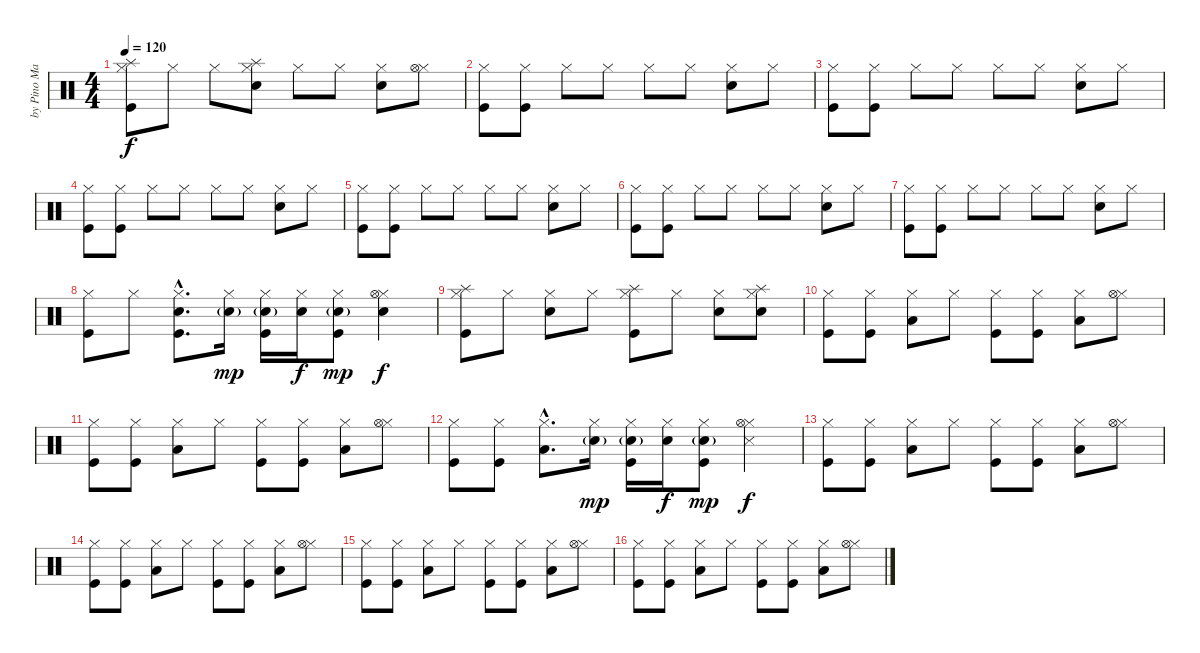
\track ("by Pino Mariconda - e Gianni De Vita" "by Pino Ma") {instrument percussion}
\staff {score}
\articulation defaults
\ts (4 4)
\tempo 120
\clef neutral
\ks c
("Splash (hit)" "Hi-Hat (closed)" "Kick (hit)").8{dy f} "Hi-Hat (closed)".8 "Hi-Hat (closed)".8 ("Splash (hit)" "Hi-Hat (closed)" "Snare (hit) 2").8 "Hi-Hat (closed)".8 "Hi-Hat (closed)".8 ("Hi-Hat (closed)" "Snare (hit) 2").8 ("Hi-Hat (closed)" "Hi-Hat (open)").8 |
("Hi-Hat (closed)" "Kick (hit)").8 ("Hi-Hat (closed)" "Kick (hit)").8 "Hi-Hat (closed)".8 "Hi-Hat (closed)".8 "Hi-Hat (closed)".8 "Hi-Hat (closed)".8 ("Hi-Hat (closed)" "Snare (hit) 2").8 "Hi-Hat (closed)".8 |
("Hi-Hat (closed)" "Kick (hit)").8 ("Hi-Hat (closed)" "Kick (hit)").8 "Hi-Hat (closed)".8 "Hi-Hat (closed)".8 "Hi-Hat (closed)".8 "Hi-Hat (closed)".8 ("Hi-Hat (closed)" "Snare (hit) 2").8 "Hi-Hat (closed)".8 |
("Hi-Hat (closed)" "Kick (hit)").8 ("Hi-Hat (closed)" "Kick (hit)").8 "Hi-Hat (closed)".8 "Hi-Hat (closed)".8 "Hi-Hat (closed)".8 "Hi-Hat (closed)".8 ("Hi-Hat (closed)" "Snare (hit) 2").8 "Hi-Hat (closed)".8 |
("Hi-Hat (closed)" "Kick (hit)").8 ("Hi-Hat (closed)" "Kick (hit)").8 "Hi-Hat (closed)".8 "Hi-Hat (closed)".8 "Hi-Hat (closed)".8 "Hi-Hat (closed)".8 ("Hi-Hat (closed)" "Snare (hit) 2").8 "Hi-Hat (closed)".8 |
("Hi-Hat (closed)" "Kick (hit)").8 ("Hi-Hat (closed)" "Kick (hit)").8 "Hi-Hat (closed)".8 "Hi-Hat (closed)".8 "Hi-Hat (closed)".8 "Hi-Hat (closed)".8 ("Hi-Hat (closed)" "Snare (hit) 2").8 "Hi-Hat (closed)".8 |
("Hi-Hat (closed)" "Kick (hit)").8 ("Hi-Hat (closed)" "Kick (hit)").8 "Hi-Hat (closed)".8 "Hi-Hat (closed)".8 "Hi-Hat (closed)".8 "Hi-Hat (closed)".8 ("Hi-Hat (closed)" "Snare (hit) 2").8 "Hi-Hat (closed)".8 |
("Hi-Hat (closed)" "Kick (hit)").8 "Hi-Hat (closed)".8 ("Hi-Hat (closed)"{hac} "Kick (hit)"{hac} "Snare (hit) 2"{hac}).8{d} ("Hi-Hat (closed)" "Snare (hit) 2"{g}).16{dy mp} ("Hi-Hat (closed)" "Kick (hit)" "Snare (hit) 2"{g}).16 ("Hi-Hat (closed)" "Snare (hit) 2").16{dy f} ("Hi-Hat (closed)" "Kick (hit)" "Snare (hit) 2"{g}).8{dy mp} ("Hi-Hat (closed)" "Hi-Hat (open)" "Snare (hit) 2").4{dy f} |
("Splash (hit)" "Hi-Hat (closed)" "Kick (hit)").8 "Hi-Hat (closed)".8 ("Hi-Hat (closed)" "Snare (hit) 2").8 "Hi-Hat (closed)".8 ("Splash (hit)" "Hi-Hat (closed)" "Kick (hit)").8 "Hi-Hat (closed)".8 ("Hi-Hat (closed)" "Snare (hit) 2").8 ("Splash (hit)" "Hi-Hat (closed)" "Snare (hit) 2").8 |
("Hi-Hat (closed)" "Kick (hit)").8 ("Hi-Hat (closed)" "Kick (hit)").8 ("Hi-Hat (closed)" "Low Tom (hit)").8 "Hi-Hat (closed)".8 ("Hi-Hat (closed)" "Kick (hit)").8 ("Hi-Hat (closed)" "Kick (hit)").8 ("Hi-Hat (closed)" "Low Tom (hit)").8 ("Hi-Hat (closed)" "Hi-Hat (open)").8 |
("Hi-Hat (closed)" "Kick (hit)").8 ("Hi-Hat (closed)" "Kick (hit)").8 ("Hi-Hat (closed)" "Low Tom (hit)").8 "Hi-Hat (closed)".8 ("Hi-Hat (closed)" "Kick (hit)").8 ("Hi-Hat (closed)" "Kick (hit)").8 ("Hi-Hat (closed)" "Low Tom (hit)").8 ("Hi-Hat (closed)" "Hi-Hat (open)").8 |
("Hi-Hat (closed)" "Kick (hit)").8 ("Hi-Hat (closed)" "Kick (hit)").8 ("Hi-Hat (closed)"{hac} "Low Tom (hit)"{hac}).8{d} ("Hi-Hat (closed)" "Snare (hit) 2"{g}).16{dy mp} ("Hi-Hat (closed)" "Kick (hit)" "Snare (hit) 2"{g}).16 ("Hi-Hat (closed)" "Snare (hit) 2").16{dy f} ("Hi-Hat (closed)" "Kick (hit)" "Snare (hit) 2"{g}).8{dy mp} ("Hi-Hat (closed)" "Hi-Hat (open)" "Snare (side stick) 3").4{dy f} |
("Hi-Hat (closed)" "Kick (hit)").8 ("Hi-Hat (closed)" "Kick (hit)").8 ("Hi-Hat (closed)" "Low Tom (hit)").8 "Hi-Hat (closed)".8 ("Hi-Hat (closed)" "Kick (hit)").8 ("Hi-Hat (closed)" "Kick (hit)").8 ("Hi-Hat (closed)" "Low Tom (hit)").8 ("Hi-Hat (closed)" "Hi-Hat (open)").8 |
("Hi-Hat (closed)" "Kick (hit)").8 ("Hi-Hat (closed)" "Kick (hit)").8 ("Hi-Hat (closed)" "Low Tom (hit)").8 "Hi-Hat (closed)".8 ("Hi-Hat (closed)" "Kick (hit)").8 ("Hi-Hat (closed)" "Kick (hit)").8 ("Hi-Hat (closed)" "Low Tom (hit)").8 ("Hi-Hat (closed)" "Hi-Hat (open)").8 |
("Hi-Hat (closed)" "Kick (hit)").8 ("Hi-Hat (closed)" "Kick (hit)").8 ("Hi-Hat (closed)" "Low Tom (hit)").8 "Hi-Hat (closed)".8 ("Hi-Hat (closed)" "Kick (hit)").8 ("Hi-Hat (closed)" "Kick (hit)").8 ("Hi-Hat (closed)" "Low Tom (hit)").8 ("Hi-Hat (closed)" "Hi-Hat (open)").8 |
("Hi-Hat (closed)" "Kick (hit)").8 ("Hi-Hat (closed)" "Kick (hit)").8 ("Hi-Hat (closed)" "Low Tom (hit)").8 "Hi-Hat (closed)".8 ("Hi-Hat (closed)" "Kick (hit)").8 ("Hi-Hat (closed)" "Kick (hit)").8 ("Hi-Hat (closed)" "Low Tom (hit)").8 ("Hi-Hat (closed)" "Hi-Hat (open)").8
